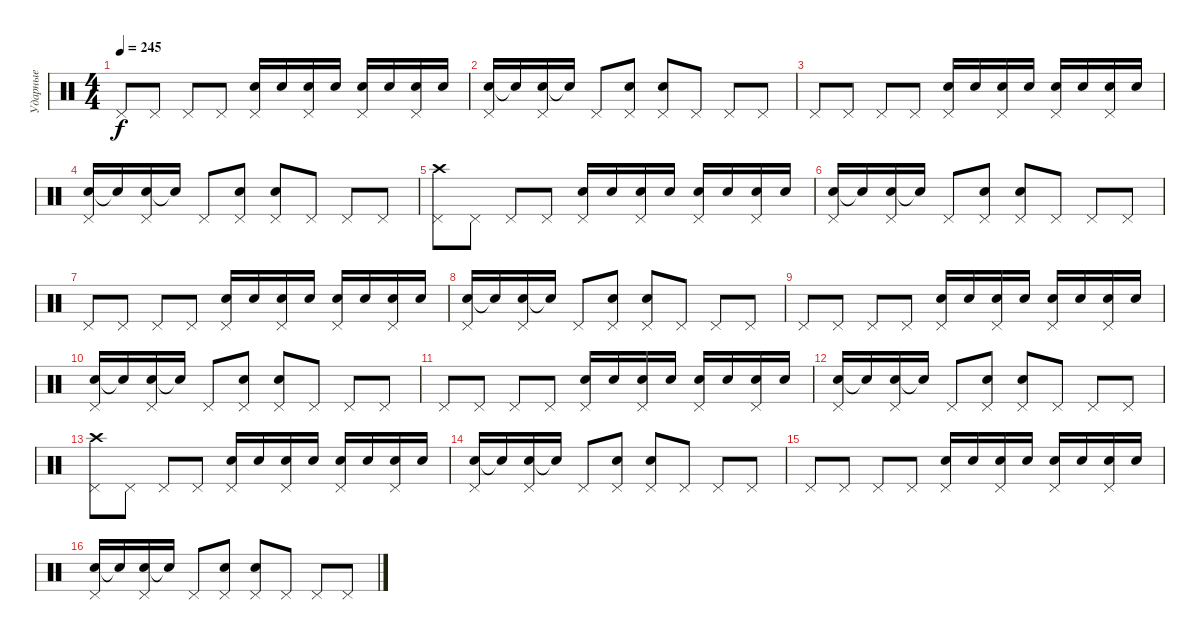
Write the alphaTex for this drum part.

\track ("Ударные" "Ударные") {instrument percussion}
\staff {score}
\articulation defaults
\ts (4 4)
\tempo 245
\clef neutral
\ks c "Pedal Hi-Hat (hit)".8{dy f} "Pedal Hi-Hat (hit)".8 "Pedal Hi-Hat (hit)".8 "Pedal Hi-Hat (hit)".8
("Electric Snare (hit)" "Pedal Hi-Hat (hit)").16 "Electric Snare (hit)".16 ("Electric Snare (hit)" "Pedal Hi-Hat (hit)").16 "Electric Snare (hit)".16 ("Electric Snare (hit)" "Pedal Hi-Hat (hit)").16 "Electric Snare (hit)".16 ("Electric Snare (hit)" "Pedal Hi-Hat (hit)").16 "Electric Snare (hit)".16 |
("Electric Snare (hit)" "Pedal Hi-Hat (hit)").16 "Snare (hit)"{t}.16 ("Electric Snare (hit)" "Pedal Hi-Hat (hit)").16 "Snare (hit)"{t}.16 "Pedal Hi-Hat (hit)".8 ("Electric Snare (hit)" "Pedal Hi-Hat (hit)").8 ("Electric Snare (hit)" "Pedal Hi-Hat (hit)").8 "Pedal Hi-Hat (hit)".8 "Pedal Hi-Hat (hit)".8 "Pedal Hi-Hat (hit)".8 |
"Pedal Hi-Hat (hit)".8 "Pedal Hi-Hat (hit)".8 "Pedal Hi-Hat (hit)".8 "Pedal Hi-Hat (hit)".8 ("Electric Snare (hit)" "Pedal Hi-Hat (hit)").16 "Electric Snare (hit)".16 ("Electric Snare (hit)" "Pedal Hi-Hat (hit)").16 "Electric Snare (hit)".16 ("Electric Snare (hit)" "Pedal Hi-Hat (hit)").16 "Electric Snare (hit)".16 ("Electric Snare (hit)" "Pedal Hi-Hat (hit)").16 "Electric Snare (hit)".16 |
("Electric Snare (hit)" "Pedal Hi-Hat (hit)").16 "Snare (hit)"{t}.16 ("Electric Snare (hit)" "Pedal Hi-Hat (hit)").16 "Snare (hit)"{t}.16 "Pedal Hi-Hat (hit)".8 ("Electric Snare (hit)" "Pedal Hi-Hat (hit)").8 ("Electric Snare (hit)" "Pedal Hi-Hat (hit)").8 "Pedal Hi-Hat (hit)".8 "Pedal Hi-Hat (hit)".8 "Pedal Hi-Hat (hit)".8 |
("Crash high (hit)" "Pedal Hi-Hat (hit)").8 "Pedal Hi-Hat (hit)".8 "Pedal Hi-Hat (hit)".8 "Pedal Hi-Hat (hit)".8 ("Electric Snare (hit)" "Pedal Hi-Hat (hit)").16 "Electric Snare (hit)".16 ("Electric Snare (hit)" "Pedal Hi-Hat (hit)").16 "Electric Snare (hit)".16 ("Electric Snare (hit)" "Pedal Hi-Hat (hit)").16 "Electric Snare (hit)".16 ("Electric Snare (hit)" "Pedal Hi-Hat (hit)").16 "Electric Snare (hit)".16 |
("Electric Snare (hit)" "Pedal Hi-Hat (hit)").16 "Snare (hit)"{t}.16 ("Electric Snare (hit)" "Pedal Hi-Hat (hit)").16 "Snare (hit)"{t}.16 "Pedal Hi-Hat (hit)".8 ("Electric Snare (hit)" "Pedal Hi-Hat (hit)").8 ("Electric Snare (hit)" "Pedal Hi-Hat (hit)").8 "Pedal Hi-Hat (hit)".8 "Pedal Hi-Hat (hit)".8 "Pedal Hi-Hat (hit)".8 |
"Pedal Hi-Hat (hit)".8 "Pedal Hi-Hat (hit)".8 "Pedal Hi-Hat (hit)".8 "Pedal Hi-Hat (hit)".8 ("Electric Snare (hit)" "Pedal Hi-Hat (hit)").16 "Electric Snare (hit)".16 ("Electric Snare (hit)" "Pedal Hi-Hat (hit)").16 "Electric Snare (hit)".16 ("Electric Snare (hit)" "Pedal Hi-Hat (hit)").16 "Electric Snare (hit)".16 ("Electric Snare (hit)" "Pedal Hi-Hat (hit)").16 "Electric Snare (hit)".16 |
("Electric Snare (hit)" "Pedal Hi-Hat (hit)").16 "Snare (hit)"{t}.16 ("Electric Snare (hit)" "Pedal Hi-Hat (hit)").16 "Snare (hit)"{t}.16 "Pedal Hi-Hat (hit)".8 ("Electric Snare (hit)" "Pedal Hi-Hat (hit)").8 ("Electric Snare (hit)" "Pedal Hi-Hat (hit)").8 "Pedal Hi-Hat (hit)".8 "Pedal Hi-Hat (hit)".8 "Pedal Hi-Hat (hit)".8 |
"Pedal Hi-Hat (hit)".8 "Pedal Hi-Hat (hit)".8 "Pedal Hi-Hat (hit)".8 "Pedal Hi-Hat (hit)".8 ("Electric Snare (hit)" "Pedal Hi-Hat (hit)").16 "Electric Snare (hit)".16 ("Electric Snare (hit)" "Pedal Hi-Hat (hit)").16 "Electric Snare (hit)".16 ("Electric Snare (hit)" "Pedal Hi-Hat (hit)").16 "Electric Snare (hit)".16 ("Electric Snare (hit)" "Pedal Hi-Hat (hit)").16 "Electric Snare (hit)".16 |
("Electric Snare (hit)" "Pedal Hi-Hat (hit)").16 "Snare (hit)"{t}.16 ("Electric Snare (hit)" "Pedal Hi-Hat (hit)").16 "Snare (hit)"{t}.16 "Pedal Hi-Hat (hit)".8 ("Electric Snare (hit)" "Pedal Hi-Hat (hit)").8 ("Electric Snare (hit)" "Pedal Hi-Hat (hit)").8 "Pedal Hi-Hat (hit)".8 "Pedal Hi-Hat (hit)".8 "Pedal Hi-Hat (hit)".8 |
"Pedal Hi-Hat (hit)".8 "Pedal Hi-Hat (hit)".8 "Pedal Hi-Hat (hit)".8 "Pedal Hi-Hat (hit)".8 ("Electric Snare (hit)" "Pedal Hi-Hat (hit)").16 "Electric Snare (hit)".16 ("Electric Snare (hit)" "Pedal Hi-Hat (hit)").16 "Electric Snare (hit)".16 ("Electric Snare (hit)" "Pedal Hi-Hat (hit)").16 "Electric Snare (hit)".16 ("Electric Snare (hit)" "Pedal Hi-Hat (hit)").16 "Electric Snare (hit)".16 |
("Electric Snare (hit)" "Pedal Hi-Hat (hit)").16 "Snare (hit)"{t}.16 ("Electric Snare (hit)" "Pedal Hi-Hat (hit)").16 "Snare (hit)"{t}.16 "Pedal Hi-Hat (hit)".8 ("Electric Snare (hit)" "Pedal Hi-Hat (hit)").8 ("Electric Snare (hit)" "Pedal Hi-Hat (hit)").8 "Pedal Hi-Hat (hit)".8 "Pedal Hi-Hat (hit)".8 "Pedal Hi-Hat (hit)".8 |
("Crash high (hit)" "Pedal Hi-Hat (hit)").8 "Pedal Hi-Hat (hit)".8 "Pedal Hi-Hat (hit)".8 "Pedal Hi-Hat (hit)".8 ("Electric Snare (hit)" "Pedal Hi-Hat (hit)").16 "Electric Snare (hit)".16 ("Electric Snare (hit)" "Pedal Hi-Hat (hit)").16 "Electric Snare (hit)".16 ("Electric Snare (hit)" "Pedal Hi-Hat (hit)").16 "Electric Snare (hit)".16 ("Electric Snare (hit)" "Pedal Hi-Hat (hit)").16 "Electric Snare (hit)".16 |
("Electric Snare (hit)" "Pedal Hi-Hat (hit)").16 "Snare (hit)"{t}.16 ("Electric Snare (hit)" "Pedal Hi-Hat (hit)").16 "Snare (hit)"{t}.16 "Pedal Hi-Hat (hit)".8 ("Electric Snare (hit)" "Pedal Hi-Hat (hit)").8 ("Electric Snare (hit)" "Pedal Hi-Hat (hit)").8 "Pedal Hi-Hat (hit)".8 "Pedal Hi-Hat (hit)".8 "Pedal Hi-Hat (hit)".8 |
"Pedal Hi-Hat (hit)".8 "Pedal Hi-Hat (hit)".8 "Pedal Hi-Hat (hit)".8 "Pedal Hi-Hat (hit)".8 ("Electric Snare (hit)" "Pedal Hi-Hat (hit)").16 "Electric Snare (hit)".16 ("Electric Snare (hit)" "Pedal Hi-Hat (hit)").16 "Electric Snare (hit)".16 ("Electric Snare (hit)" "Pedal Hi-Hat (hit)").16 "Electric Snare (hit)".16 ("Electric Snare (hit)" "Pedal Hi-Hat (hit)").16 "Electric Snare (hit)".16 |
("Electric Snare (hit)" "Pedal Hi-Hat (hit)").16 "Snare (hit)"{t}.16 ("Electric Snare (hit)" "Pedal Hi-Hat (hit)").16 "Snare (hit)"{t}.16 "Pedal Hi-Hat (hit)".8 ("Electric Snare (hit)" "Pedal Hi-Hat (hit)").8 ("Electric Snare (hit)" "Pedal Hi-Hat (hit)").8 "Pedal Hi-Hat (hit)".8 "Pedal Hi-Hat (hit)".8 "Pedal Hi-Hat (hit)".8
